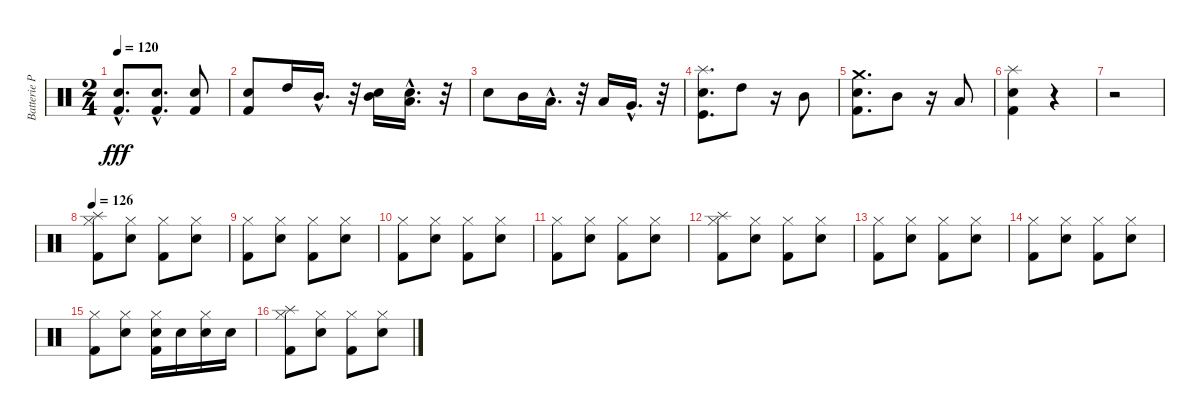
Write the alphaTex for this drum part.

\track ("Batterie Pako" "Batterie P") {instrument percussion}
\staff {score}
\articulation defaults
\ts (2 4)
\tempo 120
\clef neutral
\ks c
("Kick (hit) 2"{hac} "Electric Snare (hit)"{hac}).8{d dy fff} ("Kick (hit) 2"{hac} "Electric Snare (hit)"{hac}).8{d} ("Kick (hit) 2" "Electric Snare (hit)").8 |
("Kick (hit) 2" "Electric Snare (hit)").8 "High Tom (hit)".16 "Mid Tom (hit)"{hac}.16{d} r.32 ("Mid Tom (hit)" "Electric Snare (hit)").16 ("Low Tom (hit)"{hac} "Electric Snare (hit)"{hac}).16{d} r.32 |
"Electric Snare (hit)".8 "Mid Tom (hit)".16 "Low Tom (hit)"{hac}.16{d} r.32 "Low Tom (hit)".16 "Very Low Tom (hit)"{hac}.16{d} r.32 |
("Electric Snare (hit)" "Kick (hit)" "Splash (hit)").8{d} "High Tom (hit)".8 r.16 "Mid Tom (hit)".8 |
("Kick (hit) 2" "Electric Snare (hit)" "Crash medium (hit)").8{d} "Mid Tom (hit)".8 r.16 "Low Tom (hit)".8 |
("Kick (hit) 2" "Splash (hit)" "Electric Snare (hit)").4 r.4 |
r.2 |
\tempo 126
("Splash (hit)" "Hi-Hat (closed)" "Kick (hit) 2").8 ("Hi-Hat (closed)" "Electric Snare (hit)").8 ("Hi-Hat (closed)" "Kick (hit) 2").8 ("Hi-Hat (closed)" "Electric Snare (hit)").8 |
("Hi-Hat (closed)" "Kick (hit) 2").8 ("Hi-Hat (closed)" "Electric Snare (hit)").8 ("Hi-Hat (closed)" "Kick (hit) 2").8 ("Hi-Hat (closed)" "Electric Snare (hit)").8 |
("Hi-Hat (closed)" "Kick (hit) 2").8 ("Hi-Hat (closed)" "Electric Snare (hit)").8 ("Hi-Hat (closed)" "Kick (hit) 2").8 ("Hi-Hat (closed)" "Electric Snare (hit)").8 |
("Hi-Hat (closed)" "Kick (hit) 2").8 ("Hi-Hat (closed)" "Electric Snare (hit)").8 ("Hi-Hat (closed)" "Kick (hit) 2").8 ("Hi-Hat (closed)" "Electric Snare (hit)").8 |
("Splash (hit)" "Hi-Hat (closed)" "Kick (hit) 2").8 ("Hi-Hat (closed)" "Electric Snare (hit)").8 ("Hi-Hat (closed)" "Kick (hit) 2").8 ("Hi-Hat (closed)" "Electric Snare (hit)").8 |
("Hi-Hat (closed)" "Kick (hit) 2").8 ("Hi-Hat (closed)" "Electric Snare (hit)").8 ("Hi-Hat (closed)" "Kick (hit) 2").8 ("Hi-Hat (closed)" "Electric Snare (hit)").8 |
("Hi-Hat (closed)" "Kick (hit) 2").8 ("Hi-Hat (closed)" "Electric Snare (hit)").8 ("Hi-Hat (closed)" "Kick (hit) 2").8 ("Hi-Hat (closed)" "Electric Snare (hit)").8 |
("Hi-Hat (closed)" "Kick (hit) 2").8 ("Hi-Hat (closed)" "Electric Snare (hit)").8 ("Electric Snare (hit)" "Hi-Hat (closed)" "Kick (hit) 2").16 "Electric Snare (hit)".16 ("Electric Snare (hit)" "Hi-Hat (closed)").16 "Electric Snare (hit)".16 |
("Splash (hit)" "Hi-Hat (closed)" "Kick (hit) 2").8 ("Hi-Hat (closed)" "Electric Snare (hit)").8 ("Hi-Hat (closed)" "Kick (hit) 2").8 ("Hi-Hat (closed)" "Electric Snare (hit)").8
